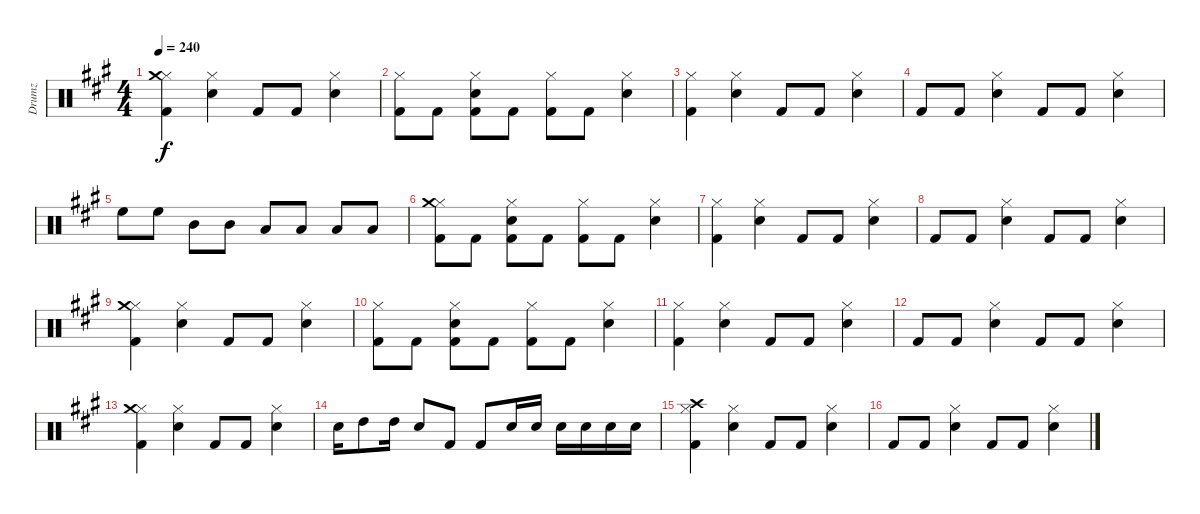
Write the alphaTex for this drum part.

\track ("Drumz" "Drumz") {instrument percussion}
\staff {score}
\articulation defaults
\ts (4 4)
\tempo 240
\clef neutral
\ks a
("Hi-Hat (closed)" "Crash medium (hit)" "Kick (hit) 2").4{dy f} ("Hi-Hat (closed)" "Electric Snare (hit)").4 "Kick (hit) 2".8 "Kick (hit) 2".8 ("Electric Snare (hit)" "Hi-Hat (closed)").4 |
("Hi-Hat (closed)" "Kick (hit) 2").8 "Kick (hit) 2".8 ("Hi-Hat (closed)" "Electric Snare (hit)" "Kick (hit) 2").8 "Kick (hit) 2".8 ("Hi-Hat (closed)" "Kick (hit) 2").8 "Kick (hit) 2".8 ("Hi-Hat (closed)" "Electric Snare (hit)").4 |
("Hi-Hat (closed)" "Kick (hit) 2").4 ("Hi-Hat (closed)" "Electric Snare (hit)").4 "Kick (hit) 2".8 "Kick (hit) 2".8 ("Electric Snare (hit)" "Hi-Hat (closed)").4 |
"Kick (hit) 2".8 "Kick (hit) 2".8 ("Hi-Hat (closed)" "Electric Snare (hit)").4 "Kick (hit) 2".8 "Kick (hit) 2".8 ("Electric Snare (hit)" "Hi-Hat (closed)").4 |
"High Floor Tom (hit)".8 "High Floor Tom (hit)".8 "Mid Tom (hit)".8 "Mid Tom (hit)".8 "Low Tom (hit)".8 "Low Tom (hit)".8 "Low Floor Tom (hit)".8 "Low Floor Tom (hit)".8 |
("Hi-Hat (closed)" "Crash medium (hit)" "Kick (hit) 2").8 "Kick (hit) 2".8 ("Hi-Hat (closed)" "Electric Snare (hit)" "Kick (hit) 2").8 "Kick (hit) 2".8 ("Hi-Hat (closed)" "Kick (hit) 2").8 "Kick (hit) 2".8 ("Hi-Hat (closed)" "Electric Snare (hit)").4 |
("Hi-Hat (closed)" "Kick (hit) 2").4 ("Hi-Hat (closed)" "Electric Snare (hit)").4 "Kick (hit) 2".8 "Kick (hit) 2".8 ("Electric Snare (hit)" "Hi-Hat (closed)").4 |
"Kick (hit) 2".8 "Kick (hit) 2".8 ("Hi-Hat (closed)" "Electric Snare (hit)").4 "Kick (hit) 2".8 "Kick (hit) 2".8 ("Electric Snare (hit)" "Hi-Hat (closed)").4 |
("Hi-Hat (closed)" "Crash medium (hit)" "Kick (hit) 2").4 ("Hi-Hat (closed)" "Electric Snare (hit)").4 "Kick (hit) 2".8 "Kick (hit) 2".8 ("Electric Snare (hit)" "Hi-Hat (closed)").4 |
("Hi-Hat (closed)" "Kick (hit) 2").8 "Kick (hit) 2".8 ("Hi-Hat (closed)" "Electric Snare (hit)" "Kick (hit) 2").8 "Kick (hit) 2".8 ("Hi-Hat (closed)" "Kick (hit) 2").8 "Kick (hit) 2".8 ("Hi-Hat (closed)" "Electric Snare (hit)").4 |
("Hi-Hat (closed)" "Kick (hit) 2").4 ("Hi-Hat (closed)" "Electric Snare (hit)").4 "Kick (hit) 2".8 "Kick (hit) 2".8 ("Electric Snare (hit)" "Hi-Hat (closed)").4 |
"Kick (hit) 2".8 "Kick (hit) 2".8 ("Hi-Hat (closed)" "Electric Snare (hit)").4 "Kick (hit) 2".8 "Kick (hit) 2".8 ("Electric Snare (hit)" "Hi-Hat (closed)").4 |
("Hi-Hat (closed)" "Crash medium (hit)" "Kick (hit) 2").4 ("Hi-Hat (closed)" "Electric Snare (hit)").4 "Kick (hit) 2".8 "Kick (hit) 2".8 ("Electric Snare (hit)" "Hi-Hat (closed)").4 |
"Electric Snare (hit)".16 "High Tom (hit)".8 "High Tom (hit)".16 "Electric Snare (hit)".8 "Kick (hit) 2".8 "Kick (hit) 2".8 "Electric Snare (hit)".16 "Electric Snare (hit)".16 "Electric Snare (hit)".16 "Electric Snare (hit)".16 "Electric Snare (hit)".16 "Electric Snare (hit)".16 |
("Hi-Hat (closed)" "Crash high (hit)" "Kick (hit) 2").4 ("Hi-Hat (closed)" "Electric Snare (hit)").4 "Kick (hit) 2".8 "Kick (hit) 2".8 ("Electric Snare (hit)" "Hi-Hat (closed)").4 |
"Kick (hit) 2".8 "Kick (hit) 2".8 ("Hi-Hat (closed)" "Electric Snare (hit)").4 "Kick (hit) 2".8 "Kick (hit) 2".8 ("Electric Snare (hit)" "Hi-Hat (closed)").4
